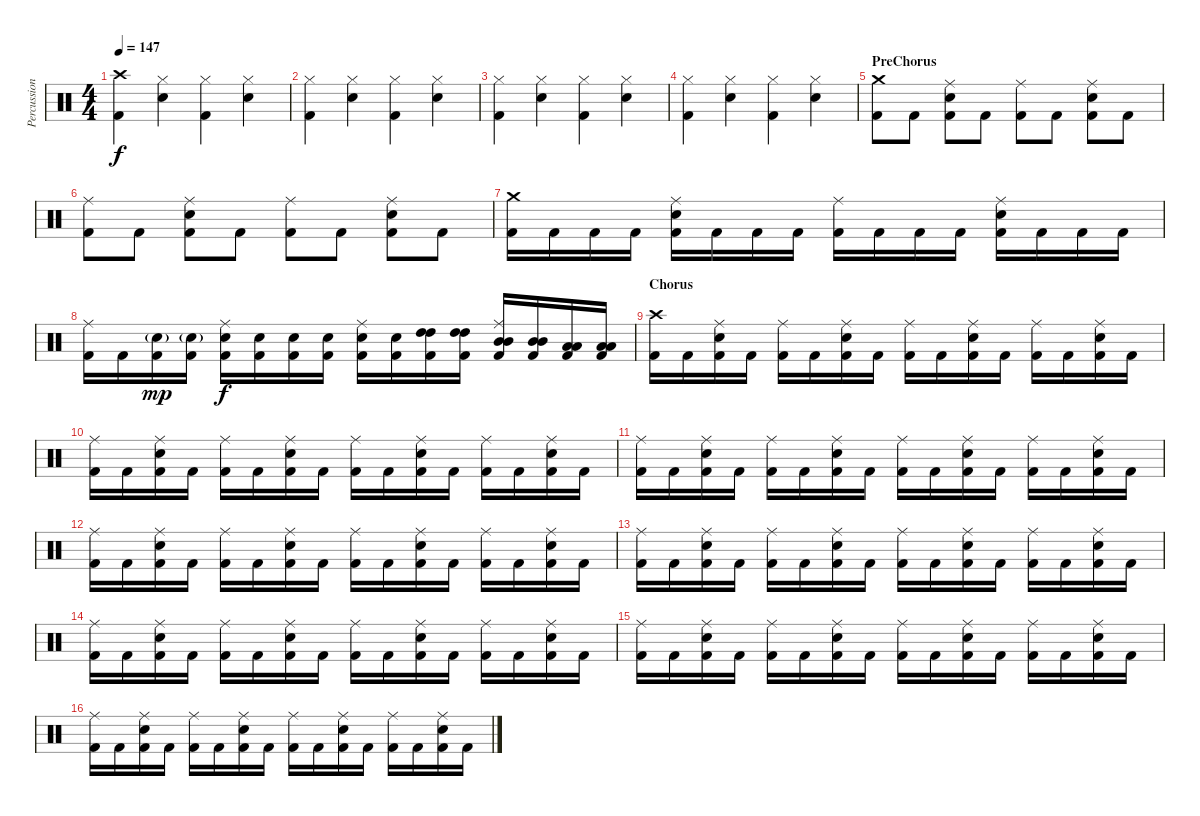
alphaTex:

\track ("Percussion" "Percussion") {instrument percussion}
\staff {score}
\articulation defaults
\ts (4 4)
\tempo 147
\clef neutral
\ks c
("Crash high (hit)" "Kick (hit) 2").4{dy f} ("Hi-Hat (closed)" "Snare (hit) 2").4 ("Hi-Hat (closed)" "Kick (hit) 2").4 ("Hi-Hat (closed)" "Snare (hit) 2").4 |
("Hi-Hat (closed)" "Kick (hit) 2").4 ("Hi-Hat (closed)" "Snare (hit) 2").4 ("Hi-Hat (closed)" "Kick (hit) 2").4 ("Hi-Hat (closed)" "Snare (hit) 2").4 |
("Hi-Hat (closed)" "Kick (hit) 2").4 ("Hi-Hat (closed)" "Snare (hit) 2").4 ("Hi-Hat (closed)" "Kick (hit) 2").4 ("Hi-Hat (closed)" "Snare (hit) 2").4 |
("Hi-Hat (closed)" "Kick (hit) 2").4 ("Hi-Hat (closed)" "Snare (hit) 2").4 ("Hi-Hat (closed)" "Kick (hit) 2").4 ("Hi-Hat (closed)" "Snare (hit) 2").4 |
\section ("" "PreChorus")
("Crash medium (hit)" "Kick (hit) 2").8 "Kick (hit) 2".8 ("Ride (middle)" "Snare (hit) 2" "Kick (hit) 2").8 "Kick (hit) 2".8 ("Ride (middle)" "Kick (hit) 2").8 "Kick (hit) 2".8 ("Ride (middle)" "Snare (hit) 2" "Kick (hit) 2").8 "Kick (hit) 2".8 |
("Ride (middle)" "Kick (hit) 2").8 "Kick (hit) 2".8 ("Ride (middle)" "Snare (hit) 2" "Kick (hit) 2").8 "Kick (hit) 2".8 ("Ride (middle)" "Kick (hit) 2").8 "Kick (hit) 2".8 ("Ride (middle)" "Snare (hit) 2" "Kick (hit) 2").8 "Kick (hit) 2".8 |
("Kick (hit) 2" "Crash medium (hit)").16 "Kick (hit) 2".16 "Kick (hit) 2".16 "Kick (hit) 2".16 ("Kick (hit) 2" "Snare (hit) 2" "Ride (middle)").16 "Kick (hit) 2".16 "Kick (hit) 2".16 "Kick (hit) 2".16 ("Kick (hit) 2" "Ride (middle)").16 "Kick (hit) 2".16 "Kick (hit) 2".16 "Kick (hit) 2".16 ("Kick (hit) 2" "Snare (hit) 2" "Ride (middle)").16 "Kick (hit) 2".16 "Kick (hit) 2".16 "Kick (hit) 2".16 |
("Kick (hit) 2" "Ride (middle)").16 "Kick (hit) 2".16 ("Kick (hit) 2" "Snare (hit) 2"{g}).16{dy mp} ("Kick (hit) 2" "Snare (hit) 2"{g}).16 ("Kick (hit) 2" "Snare (hit) 2" "Ride (middle)").16{dy f} ("Kick (hit) 2" "Snare (hit) 2").16 ("Kick (hit) 2" "Snare (hit) 2").16 ("Kick (hit) 2" "Snare (hit) 2").16 ("Kick (hit) 2" "Snare (hit) 2" "Ride (middle)").16 ("Kick (hit) 2" "Snare (hit) 2").16 ("Kick (hit) 2" "High Tom (hit)" "High Tom (hit)").16 ("Kick (hit) 2" "High Tom (hit)" "High Tom (hit)").16 ("Kick (hit) 2" "Mid Tom (hit)" "Mid Tom (hit)" "Ride (middle)").16 ("Kick (hit) 2" "Mid Tom (hit)" "Mid Tom (hit)").16 ("Kick (hit) 2" "Low Tom (hit)" "Low Tom (hit)").16 ("Kick (hit) 2" "Low Tom (hit)" "Low Tom (hit)").16 |
\section ("" "Chorus")
("Kick (hit) 2" "Crash high (hit)").16 "Kick (hit) 2".16 ("Kick (hit) 2" "Snare (hit) 2" "Ride (middle)").16 "Kick (hit) 2".16 ("Kick (hit) 2" "Ride (middle)").16 "Kick (hit) 2".16 ("Kick (hit) 2" "Snare (hit) 2" "Ride (middle)").16 "Kick (hit) 2".16 ("Kick (hit) 2" "Ride (middle)").16 "Kick (hit) 2".16 ("Kick (hit) 2" "Snare (hit) 2" "Ride (middle)").16 "Kick (hit) 2".16 ("Kick (hit) 2" "Ride (middle)").16 "Kick (hit) 2".16 ("Kick (hit) 2" "Snare (hit) 2" "Ride (middle)").16 "Kick (hit) 2".16 |
("Kick (hit) 2" "Ride (middle)").16 "Kick (hit) 2".16 ("Kick (hit) 2" "Snare (hit) 2" "Ride (middle)").16 "Kick (hit) 2".16 ("Kick (hit) 2" "Ride (middle)").16 "Kick (hit) 2".16 ("Kick (hit) 2" "Snare (hit) 2" "Ride (middle)").16 "Kick (hit) 2".16 ("Kick (hit) 2" "Ride (middle)").16 "Kick (hit) 2".16 ("Kick (hit) 2" "Snare (hit) 2" "Ride (middle)").16 "Kick (hit) 2".16 ("Kick (hit) 2" "Ride (middle)").16 "Kick (hit) 2".16 ("Kick (hit) 2" "Snare (hit) 2" "Ride (middle)").16 "Kick (hit) 2".16 |
("Kick (hit) 2" "Ride (middle)").16 "Kick (hit) 2".16 ("Kick (hit) 2" "Snare (hit) 2" "Ride (middle)").16 "Kick (hit) 2".16 ("Kick (hit) 2" "Ride (middle)").16 "Kick (hit) 2".16 ("Kick (hit) 2" "Snare (hit) 2" "Ride (middle)").16 "Kick (hit) 2".16 ("Kick (hit) 2" "Ride (middle)").16 "Kick (hit) 2".16 ("Kick (hit) 2" "Snare (hit) 2" "Ride (middle)").16 "Kick (hit) 2".16 ("Kick (hit) 2" "Ride (middle)").16 "Kick (hit) 2".16 ("Kick (hit) 2" "Snare (hit) 2" "Ride (middle)").16 "Kick (hit) 2".16 |
("Kick (hit) 2" "Ride (middle)").16 "Kick (hit) 2".16 ("Kick (hit) 2" "Snare (hit) 2" "Ride (middle)").16 "Kick (hit) 2".16 ("Kick (hit) 2" "Ride (middle)").16 "Kick (hit) 2".16 ("Kick (hit) 2" "Snare (hit) 2" "Ride (middle)").16 "Kick (hit) 2".16 ("Kick (hit) 2" "Ride (middle)").16 "Kick (hit) 2".16 ("Kick (hit) 2" "Snare (hit) 2" "Ride (middle)").16 "Kick (hit) 2".16 ("Kick (hit) 2" "Ride (middle)").16 "Kick (hit) 2".16 ("Kick (hit) 2" "Snare (hit) 2" "Ride (middle)").16 "Kick (hit) 2".16 |
("Kick (hit) 2" "Ride (middle)").16 "Kick (hit) 2".16 ("Kick (hit) 2" "Snare (hit) 2" "Ride (middle)").16 "Kick (hit) 2".16 ("Kick (hit) 2" "Ride (middle)").16 "Kick (hit) 2".16 ("Kick (hit) 2" "Snare (hit) 2" "Ride (middle)").16 "Kick (hit) 2".16 ("Kick (hit) 2" "Ride (middle)").16 "Kick (hit) 2".16 ("Kick (hit) 2" "Snare (hit) 2" "Ride (middle)").16 "Kick (hit) 2".16 ("Kick (hit) 2" "Ride (middle)").16 "Kick (hit) 2".16 ("Kick (hit) 2" "Snare (hit) 2" "Ride (middle)").16 "Kick (hit) 2".16 |
("Kick (hit) 2" "Ride (middle)").16 "Kick (hit) 2".16 ("Kick (hit) 2" "Snare (hit) 2" "Ride (middle)").16 "Kick (hit) 2".16 ("Kick (hit) 2" "Ride (middle)").16 "Kick (hit) 2".16 ("Kick (hit) 2" "Snare (hit) 2" "Ride (middle)").16 "Kick (hit) 2".16 ("Kick (hit) 2" "Ride (middle)").16 "Kick (hit) 2".16 ("Kick (hit) 2" "Snare (hit) 2" "Ride (middle)").16 "Kick (hit) 2".16 ("Kick (hit) 2" "Ride (middle)").16 "Kick (hit) 2".16 ("Kick (hit) 2" "Snare (hit) 2" "Ride (middle)").16 "Kick (hit) 2".16 |
("Kick (hit) 2" "Ride (middle)").16 "Kick (hit) 2".16 ("Kick (hit) 2" "Snare (hit) 2" "Ride (middle)").16 "Kick (hit) 2".16 ("Kick (hit) 2" "Ride (middle)").16 "Kick (hit) 2".16 ("Kick (hit) 2" "Snare (hit) 2" "Ride (middle)").16 "Kick (hit) 2".16 ("Kick (hit) 2" "Ride (middle)").16 "Kick (hit) 2".16 ("Kick (hit) 2" "Snare (hit) 2" "Ride (middle)").16 "Kick (hit) 2".16 ("Kick (hit) 2" "Ride (middle)").16 "Kick (hit) 2".16 ("Kick (hit) 2" "Snare (hit) 2" "Ride (middle)").16 "Kick (hit) 2".16 |
("Kick (hit) 2" "Ride (middle)").16 "Kick (hit) 2".16 ("Kick (hit) 2" "Snare (hit) 2" "Ride (middle)").16 "Kick (hit) 2".16 ("Kick (hit) 2" "Ride (middle)").16 "Kick (hit) 2".16 ("Kick (hit) 2" "Snare (hit) 2" "Ride (middle)").16 "Kick (hit) 2".16 ("Kick (hit) 2" "Ride (middle)").16 "Kick (hit) 2".16 ("Kick (hit) 2" "Snare (hit) 2" "Ride (middle)").16 "Kick (hit) 2".16 ("Kick (hit) 2" "Ride (middle)").16 "Kick (hit) 2".16 ("Kick (hit) 2" "Snare (hit) 2" "Ride (middle)").16 "Kick (hit) 2".16
